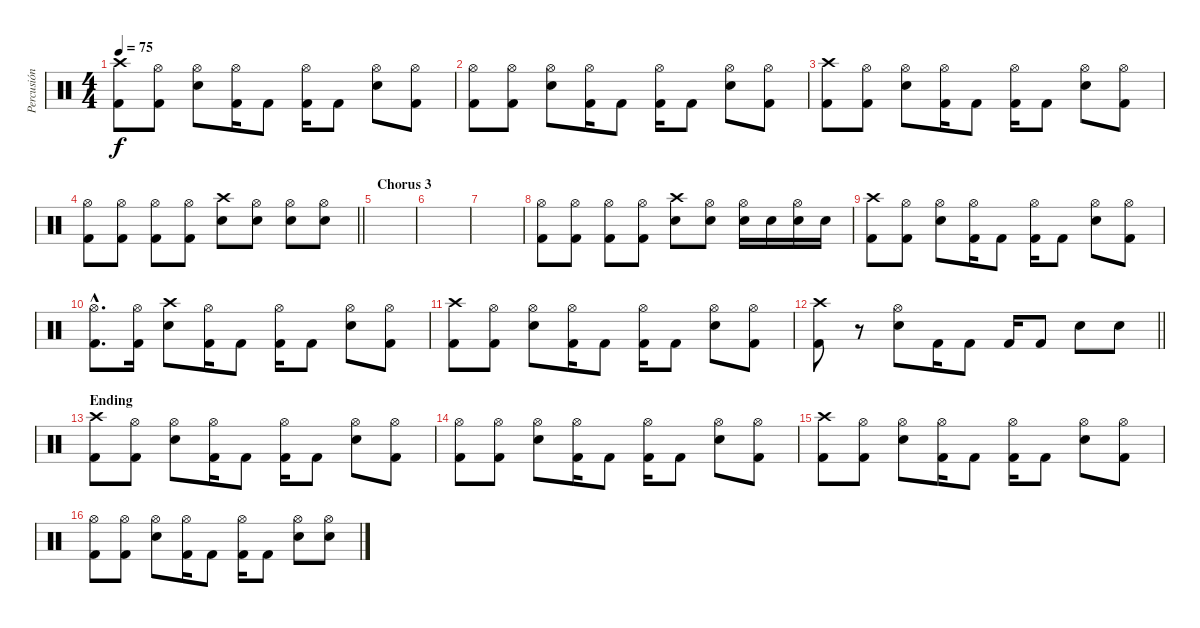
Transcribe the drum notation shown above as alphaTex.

\track ("Percusión" "Percusión") {instrument percussion}
\staff {score}
\articulation defaults
\ts (4 4)
\tempo 75
\clef neutral
\ks c
("Crash high (hit)" "Kick (hit) 2").8{dy f} ("Hi-Hat (open)" "Kick (hit) 2").8 ("Hi-Hat (open)" "Snare (hit) 2").8 ("Hi-Hat (open)" "Kick (hit) 2").16 "Kick (hit) 2".8 ("Hi-Hat (open)" "Kick (hit) 2").16 "Kick (hit) 2".8 ("Hi-Hat (open)" "Snare (hit) 2").8 ("Hi-Hat (open)" "Kick (hit) 2").8 |
("Hi-Hat (open)" "Kick (hit) 2").8 ("Hi-Hat (open)" "Kick (hit) 2").8 ("Hi-Hat (open)" "Snare (hit) 2").8 ("Hi-Hat (open)" "Kick (hit) 2").16 "Kick (hit) 2".8 ("Hi-Hat (open)" "Kick (hit) 2").16 "Kick (hit) 2".8 ("Hi-Hat (open)" "Snare (hit) 2").8 ("Hi-Hat (open)" "Kick (hit) 2").8 |
("Crash high (hit)" "Kick (hit) 2").8 ("Hi-Hat (open)" "Kick (hit) 2").8 ("Hi-Hat (open)" "Snare (hit) 2").8 ("Hi-Hat (open)" "Kick (hit) 2").16 "Kick (hit) 2".8 ("Hi-Hat (open)" "Kick (hit) 2").16 "Kick (hit) 2".8 ("Hi-Hat (open)" "Snare (hit) 2").8 ("Hi-Hat (open)" "Kick (hit) 2").8 |
\barLineRight lightlight
("Hi-Hat (open)" "Kick (hit) 2").8 ("Hi-Hat (open)" "Kick (hit) 2").8 ("Hi-Hat (open)" "Kick (hit) 2").8 ("Hi-Hat (open)" "Kick (hit) 2").8 ("Crash high (hit)" "Snare (hit) 2").8 ("Hi-Hat (open)" "Snare (hit) 2").8 ("Hi-Hat (open)" "Snare (hit) 2").8 ("Hi-Hat (open)" "Snare (hit) 2").8 |
\section ("" "Chorus 3")
|
|
|
("Hi-Hat (open)" "Kick (hit) 2").8 ("Hi-Hat (open)" "Kick (hit) 2").8 ("Hi-Hat (open)" "Kick (hit) 2").8 ("Hi-Hat (open)" "Kick (hit) 2").8 ("Crash high (hit)" "Snare (hit) 2").8 ("Hi-Hat (open)" "Snare (hit) 2").8 ("Hi-Hat (open)" "Snare (hit) 2").16 "Snare (hit) 2".16 ("Hi-Hat (open)" "Snare (hit) 2").16 "Snare (hit) 2".16 |
("Crash high (hit)" "Kick (hit) 2").8 ("Hi-Hat (open)" "Kick (hit) 2").8 ("Hi-Hat (open)" "Snare (hit) 2").8 ("Hi-Hat (open)" "Kick (hit) 2").16 "Kick (hit) 2".8 ("Hi-Hat (open)" "Kick (hit) 2").16 "Kick (hit) 2".8 ("Hi-Hat (open)" "Snare (hit) 2").8 ("Hi-Hat (open)" "Kick (hit) 2").8 |
("Hi-Hat (open)"{hac} "Kick (hit) 2"{hac}).8{d} ("Hi-Hat (open)" "Kick (hit) 2").16 ("Crash high (hit)" "Snare (hit) 2").8 ("Hi-Hat (open)" "Kick (hit) 2").16 "Kick (hit) 2".8 ("Hi-Hat (open)" "Kick (hit) 2").16 "Kick (hit) 2".8 ("Hi-Hat (open)" "Snare (hit) 2").8 ("Hi-Hat (open)" "Kick (hit) 2").8 |
("Crash high (hit)" "Kick (hit) 2").8 ("Hi-Hat (open)" "Kick (hit) 2").8 ("Hi-Hat (open)" "Snare (hit) 2").8 ("Hi-Hat (open)" "Kick (hit) 2").16 "Kick (hit) 2".8 ("Hi-Hat (open)" "Kick (hit) 2").16 "Kick (hit) 2".8 ("Hi-Hat (open)" "Snare (hit) 2").8 ("Hi-Hat (open)" "Kick (hit) 2").8 |
\barLineRight lightlight
("Crash high (hit)" "Kick (hit) 2").8 r.8 ("Hi-Hat (open)" "Snare (hit) 2").8 "Kick (hit) 2".16 "Kick (hit) 2".8 "Kick (hit) 2".16 "Kick (hit) 2".8 "Snare (hit) 2".8 "Snare (hit) 2".8 |
\section ("" "Ending")
("Crash high (hit)" "Kick (hit) 2").8 ("Hi-Hat (open)" "Kick (hit) 2").8 ("Hi-Hat (open)" "Snare (hit) 2").8 ("Hi-Hat (open)" "Kick (hit) 2").16 "Kick (hit) 2".8 ("Hi-Hat (open)" "Kick (hit) 2").16 "Kick (hit) 2".8 ("Hi-Hat (open)" "Snare (hit) 2").8 ("Hi-Hat (open)" "Kick (hit) 2").8 |
("Hi-Hat (open)" "Kick (hit) 2").8 ("Hi-Hat (open)" "Kick (hit) 2").8 ("Hi-Hat (open)" "Snare (hit) 2").8 ("Hi-Hat (open)" "Kick (hit) 2").16 "Kick (hit) 2".8 ("Hi-Hat (open)" "Kick (hit) 2").16 "Kick (hit) 2".8 ("Hi-Hat (open)" "Snare (hit) 2").8 ("Hi-Hat (open)" "Kick (hit) 2").8 |
("Crash high (hit)" "Kick (hit) 2").8 ("Hi-Hat (open)" "Kick (hit) 2").8 ("Hi-Hat (open)" "Snare (hit) 2").8 ("Hi-Hat (open)" "Kick (hit) 2").16 "Kick (hit) 2".8 ("Hi-Hat (open)" "Kick (hit) 2").16 "Kick (hit) 2".8 ("Hi-Hat (open)" "Snare (hit) 2").8 ("Hi-Hat (open)" "Kick (hit) 2").8 |
("Hi-Hat (open)" "Kick (hit) 2").8 ("Hi-Hat (open)" "Kick (hit) 2").8 ("Hi-Hat (open)" "Snare (hit) 2").8 ("Hi-Hat (open)" "Kick (hit) 2").16 "Kick (hit) 2".8 ("Hi-Hat (open)" "Kick (hit) 2").16 "Kick (hit) 2".8 ("Hi-Hat (open)" "Snare (hit) 2").8 ("Hi-Hat (open)" "Snare (hit) 2").8
